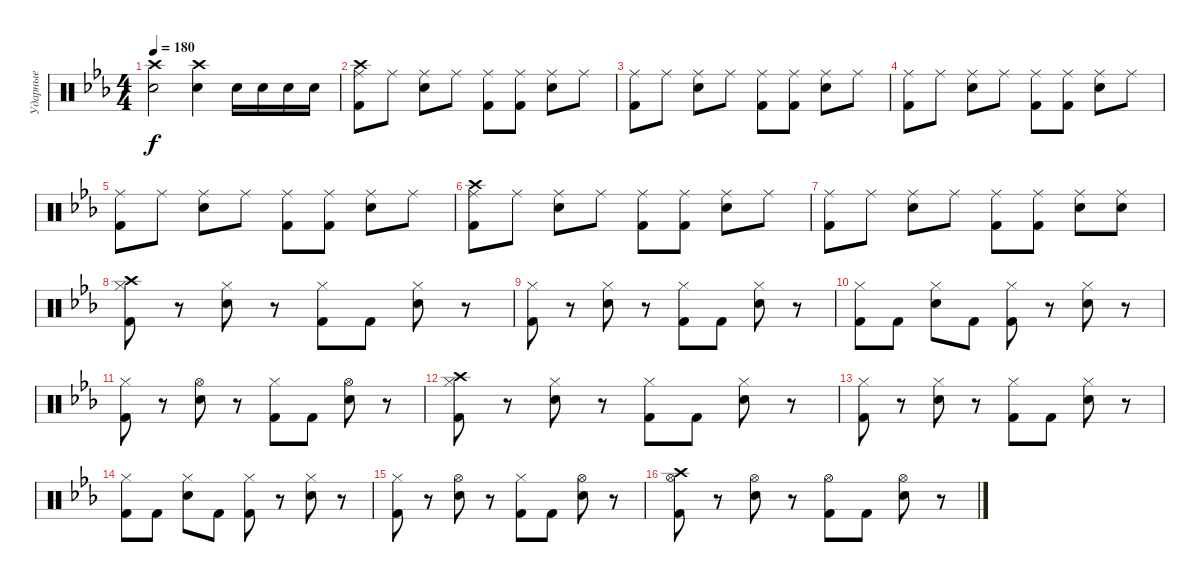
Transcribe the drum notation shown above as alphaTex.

\track ("Ударные" "Ударные") {instrument percussion}
\staff {score}
\articulation defaults
\ts (4 4)
\tempo 180
\clef neutral
\ks eb
("Crash high (hit)" "Electric Snare (hit)").2{dy f} ("Crash high (hit)" "Electric Snare (hit)").4 "Electric Snare (hit)".16 "Electric Snare (hit)".16 "Electric Snare (hit)".16 "Electric Snare (hit)".16 |
("Ride (middle)" "Kick (hit) 2" "Crash high (hit)").8 "Ride (middle)".8 ("Ride (middle)" "Electric Snare (hit)").8 "Ride (middle)".8 ("Ride (middle)" "Kick (hit) 2").8 ("Ride (middle)" "Kick (hit) 2").8 ("Ride (middle)" "Electric Snare (hit)").8 "Ride (middle)".8 |
("Ride (middle)" "Kick (hit) 2").8 "Ride (middle)".8 ("Ride (middle)" "Electric Snare (hit)").8 "Ride (middle)".8 ("Ride (middle)" "Kick (hit) 2").8 ("Ride (middle)" "Kick (hit) 2").8 ("Ride (middle)" "Electric Snare (hit)").8 "Ride (middle)".8 |
("Ride (middle)" "Kick (hit) 2").8 "Ride (middle)".8 ("Ride (middle)" "Electric Snare (hit)").8 "Ride (middle)".8 ("Ride (middle)" "Kick (hit) 2").8 ("Ride (middle)" "Kick (hit) 2").8 ("Ride (middle)" "Electric Snare (hit)").8 "Ride (middle)".8 |
("Ride (middle)" "Kick (hit) 2").8 "Ride (middle)".8 ("Ride (middle)" "Electric Snare (hit)").8 "Ride (middle)".8 ("Ride (middle)" "Kick (hit) 2").8 ("Ride (middle)" "Kick (hit) 2").8 ("Ride (middle)" "Electric Snare (hit)").8 "Ride (middle)".8 |
("Ride (middle)" "Kick (hit) 2" "Crash high (hit)").8 "Ride (middle)".8 ("Ride (middle)" "Electric Snare (hit)").8 "Ride (middle)".8 ("Ride (middle)" "Kick (hit) 2").8 ("Ride (middle)" "Kick (hit) 2").8 ("Ride (middle)" "Electric Snare (hit)").8 "Ride (middle)".8 |
("Ride (middle)" "Kick (hit) 2").8 "Ride (middle)".8 ("Ride (middle)" "Electric Snare (hit)").8 "Ride (middle)".8 ("Ride (middle)" "Kick (hit) 2").8 ("Ride (middle)" "Kick (hit) 2").8 ("Ride (middle)" "Electric Snare (hit)").8 ("Ride (middle)" "Electric Snare (hit)").8 |
("Hi-Hat (closed)" "Kick (hit) 2" "Crash high (hit)").8 r.8 ("Hi-Hat (closed)" "Electric Snare (hit)").8 r.8 ("Hi-Hat (closed)" "Kick (hit) 2").8 "Kick (hit) 2".8 ("Hi-Hat (closed)" "Electric Snare (hit)").8 r.8 |
("Hi-Hat (closed)" "Kick (hit) 2").8 r.8 ("Hi-Hat (closed)" "Electric Snare (hit)").8 r.8 ("Hi-Hat (closed)" "Kick (hit) 2").8 "Kick (hit) 2".8 ("Hi-Hat (closed)" "Electric Snare (hit)").8 r.8 |
("Hi-Hat (closed)" "Kick (hit) 2").8 "Kick (hit) 2".8 ("Hi-Hat (closed)" "Electric Snare (hit)").8 "Kick (hit) 2".8 ("Hi-Hat (closed)" "Kick (hit) 2").8 r.8 ("Hi-Hat (closed)" "Electric Snare (hit)").8 r.8 |
("Hi-Hat (closed)" "Kick (hit) 2").8 r.8 ("Hi-Hat (open)" "Electric Snare (hit)").8 r.8 ("Hi-Hat (closed)" "Kick (hit) 2").8 "Kick (hit) 2".8 ("Hi-Hat (open)" "Electric Snare (hit)").8 r.8 |
("Hi-Hat (closed)" "Kick (hit) 2" "Crash high (hit)").8 r.8 ("Hi-Hat (closed)" "Electric Snare (hit)").8 r.8 ("Hi-Hat (closed)" "Kick (hit) 2").8 "Kick (hit) 2".8 ("Hi-Hat (closed)" "Electric Snare (hit)").8 r.8 |
("Hi-Hat (closed)" "Kick (hit) 2").8 r.8 ("Hi-Hat (closed)" "Electric Snare (hit)").8 r.8 ("Hi-Hat (closed)" "Kick (hit) 2").8 "Kick (hit) 2".8 ("Hi-Hat (closed)" "Electric Snare (hit)").8 r.8 |
("Hi-Hat (closed)" "Kick (hit) 2").8 "Kick (hit) 2".8 ("Hi-Hat (closed)" "Electric Snare (hit)").8 "Kick (hit) 2".8 ("Hi-Hat (closed)" "Kick (hit) 2").8 r.8 ("Hi-Hat (closed)" "Electric Snare (hit)").8 r.8 |
("Hi-Hat (closed)" "Kick (hit) 2").8 r.8 ("Hi-Hat (open)" "Electric Snare (hit)").8 r.8 ("Hi-Hat (closed)" "Kick (hit) 2").8 "Kick (hit) 2".8 ("Hi-Hat (open)" "Electric Snare (hit)").8 r.8 |
("Hi-Hat (open)" "Kick (hit) 2" "Crash high (hit)").8 r.8 ("Hi-Hat (open)" "Electric Snare (hit)").8 r.8 ("Hi-Hat (open)" "Kick (hit) 2").8 "Kick (hit) 2".8 ("Hi-Hat (open)" "Electric Snare (hit)").8 r.8
